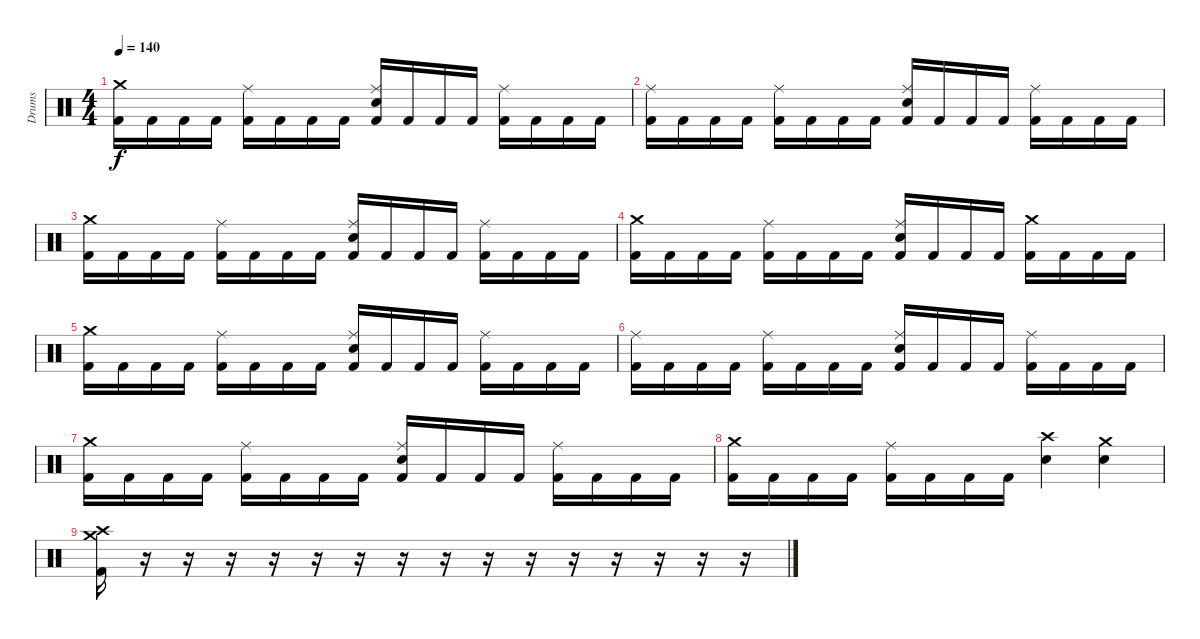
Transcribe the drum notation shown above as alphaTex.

\track ("Drums" "Drums") {instrument percussion}
\staff {score}
\articulation defaults
\ts (4 4)
\tempo 140
\clef neutral
\ks c
("Crash medium (hit)" "Kick (hit) 2").16{dy f} "Kick (hit) 2".16 "Kick (hit) 2".16 "Kick (hit) 2".16 ("Ride (middle)" "Kick (hit) 2").16 "Kick (hit) 2".16 "Kick (hit) 2".16 "Kick (hit) 2".16 ("Ride (middle)" "Electric Snare (hit)" "Kick (hit) 2").16 "Kick (hit) 2".16 "Kick (hit) 2".16 "Kick (hit) 2".16 ("Ride (middle)" "Kick (hit) 2").16 "Kick (hit) 2".16 "Kick (hit) 2".16 "Kick (hit) 2".16 |
("Ride (middle)" "Kick (hit) 2").16 "Kick (hit) 2".16 "Kick (hit) 2".16 "Kick (hit) 2".16 ("Ride (middle)" "Kick (hit) 2").16 "Kick (hit) 2".16 "Kick (hit) 2".16 "Kick (hit) 2".16 ("Ride (middle)" "Electric Snare (hit)" "Kick (hit) 2").16 "Kick (hit) 2".16 "Kick (hit) 2".16 "Kick (hit) 2".16 ("Ride (middle)" "Kick (hit) 2").16 "Kick (hit) 2".16 "Kick (hit) 2".16 "Kick (hit) 2".16 |
("Crash medium (hit)" "Kick (hit) 2").16 "Kick (hit) 2".16 "Kick (hit) 2".16 "Kick (hit) 2".16 ("Ride (middle)" "Kick (hit) 2").16 "Kick (hit) 2".16 "Kick (hit) 2".16 "Kick (hit) 2".16 ("Ride (middle)" "Electric Snare (hit)" "Kick (hit) 2").16 "Kick (hit) 2".16 "Kick (hit) 2".16 "Kick (hit) 2".16 ("Ride (middle)" "Kick (hit) 2").16 "Kick (hit) 2".16 "Kick (hit) 2".16 "Kick (hit) 2".16 |
("Crash medium (hit)" "Kick (hit) 2").16 "Kick (hit) 2".16 "Kick (hit) 2".16 "Kick (hit) 2".16 ("Ride (middle)" "Kick (hit) 2").16 "Kick (hit) 2".16 "Kick (hit) 2".16 "Kick (hit) 2".16 ("Ride (middle)" "Electric Snare (hit)" "Kick (hit) 2").16 "Kick (hit) 2".16 "Kick (hit) 2".16 "Kick (hit) 2".16 ("Crash medium (hit)" "Kick (hit) 2").16 "Kick (hit) 2".16 "Kick (hit) 2".16 "Kick (hit) 2".16 |
("Crash medium (hit)" "Kick (hit) 2").16 "Kick (hit) 2".16 "Kick (hit) 2".16 "Kick (hit) 2".16 ("Ride (middle)" "Kick (hit) 2").16 "Kick (hit) 2".16 "Kick (hit) 2".16 "Kick (hit) 2".16 ("Ride (middle)" "Electric Snare (hit)" "Kick (hit) 2").16 "Kick (hit) 2".16 "Kick (hit) 2".16 "Kick (hit) 2".16 ("Ride (middle)" "Kick (hit) 2").16 "Kick (hit) 2".16 "Kick (hit) 2".16 "Kick (hit) 2".16 |
("Ride (middle)" "Kick (hit) 2").16 "Kick (hit) 2".16 "Kick (hit) 2".16 "Kick (hit) 2".16 ("Ride (middle)" "Kick (hit) 2").16 "Kick (hit) 2".16 "Kick (hit) 2".16 "Kick (hit) 2".16 ("Ride (middle)" "Electric Snare (hit)" "Kick (hit) 2").16 "Kick (hit) 2".16 "Kick (hit) 2".16 "Kick (hit) 2".16 ("Ride (middle)" "Kick (hit) 2").16 "Kick (hit) 2".16 "Kick (hit) 2".16 "Kick (hit) 2".16 |
("Crash medium (hit)" "Kick (hit) 2").16 "Kick (hit) 2".16 "Kick (hit) 2".16 "Kick (hit) 2".16 ("Ride (middle)" "Kick (hit) 2").16 "Kick (hit) 2".16 "Kick (hit) 2".16 "Kick (hit) 2".16 ("Ride (middle)" "Electric Snare (hit)" "Kick (hit) 2").16 "Kick (hit) 2".16 "Kick (hit) 2".16 "Kick (hit) 2".16 ("Ride (middle)" "Kick (hit) 2").16 "Kick (hit) 2".16 "Kick (hit) 2".16 "Kick (hit) 2".16 |
("Crash medium (hit)" "Kick (hit) 2").16 "Kick (hit) 2".16 "Kick (hit) 2".16 "Kick (hit) 2".16 ("Ride (middle)" "Kick (hit) 2").16 "Kick (hit) 2".16 "Kick (hit) 2".16 "Kick (hit) 2".16 ("Crash high (hit)" "Electric Snare (hit)").4 ("Crash medium (hit)" "Electric Snare (hit)").4 |
("Crash high (hit)" "Crash medium (hit)" "Kick (hit) 2").16 r.16 r.16 r.16 r.16 r.16 r.16 r.16 r.16 r.16 r.16 r.16 r.16 r.16 r.16 r.16
